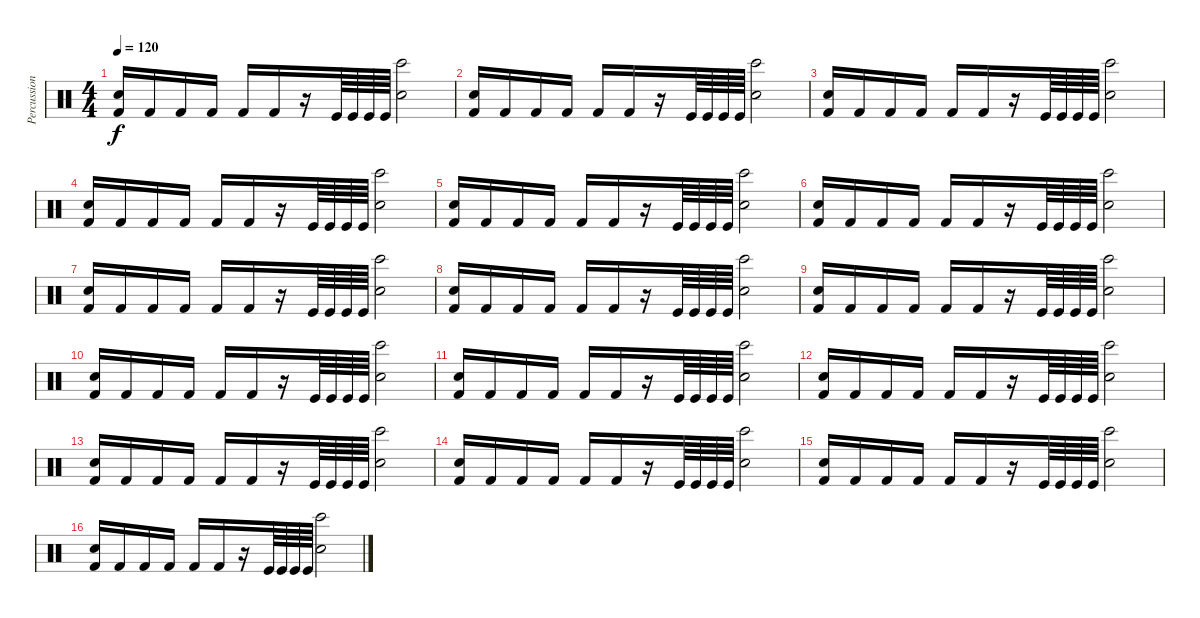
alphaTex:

\track ("Percussion" "Percussion") {instrument percussion}
\staff {score}
\articulation defaults
\ts (4 4)
\tempo 120
\clef neutral
\ks c
("Kick (hit) 2" "Snare (hit) 2").16{dy f} "Kick (hit) 2".16 "Kick (hit) 2".16 "Kick (hit) 2".16 "Kick (hit) 2".16 "Kick (hit) 2".16 r.16 "Kick (hit)".64 "Kick (hit)".64 "Kick (hit)".64 "Kick (hit)".64 ("Bongo High (hit)" "Snare (hit) 2").2 |
("Kick (hit) 2" "Snare (hit) 2").16 "Kick (hit) 2".16 "Kick (hit) 2".16 "Kick (hit) 2".16 "Kick (hit) 2".16 "Kick (hit) 2".16 r.16 "Kick (hit)".64 "Kick (hit)".64 "Kick (hit)".64 "Kick (hit)".64 ("Bongo High (hit)" "Snare (hit) 2").2 |
("Kick (hit) 2" "Snare (hit) 2").16 "Kick (hit) 2".16 "Kick (hit) 2".16 "Kick (hit) 2".16 "Kick (hit) 2".16 "Kick (hit) 2".16 r.16 "Kick (hit)".64 "Kick (hit)".64 "Kick (hit)".64 "Kick (hit)".64 ("Bongo High (hit)" "Snare (hit) 2").2 |
("Kick (hit) 2" "Snare (hit) 2").16 "Kick (hit) 2".16 "Kick (hit) 2".16 "Kick (hit) 2".16 "Kick (hit) 2".16 "Kick (hit) 2".16 r.16 "Kick (hit)".64 "Kick (hit)".64 "Kick (hit)".64 "Kick (hit)".64 ("Bongo High (hit)" "Snare (hit) 2").2 |
("Kick (hit) 2" "Snare (hit) 2").16 "Kick (hit) 2".16 "Kick (hit) 2".16 "Kick (hit) 2".16 "Kick (hit) 2".16 "Kick (hit) 2".16 r.16 "Kick (hit)".64 "Kick (hit)".64 "Kick (hit)".64 "Kick (hit)".64 ("Bongo High (hit)" "Snare (hit) 2").2 |
("Kick (hit) 2" "Snare (hit) 2").16 "Kick (hit) 2".16 "Kick (hit) 2".16 "Kick (hit) 2".16 "Kick (hit) 2".16 "Kick (hit) 2".16 r.16 "Kick (hit)".64 "Kick (hit)".64 "Kick (hit)".64 "Kick (hit)".64 ("Bongo High (hit)" "Snare (hit) 2").2 |
("Kick (hit) 2" "Snare (hit) 2").16 "Kick (hit) 2".16 "Kick (hit) 2".16 "Kick (hit) 2".16 "Kick (hit) 2".16 "Kick (hit) 2".16 r.16 "Kick (hit)".64 "Kick (hit)".64 "Kick (hit)".64 "Kick (hit)".64 ("Bongo High (hit)" "Snare (hit) 2").2 |
("Kick (hit) 2" "Snare (hit) 2").16 "Kick (hit) 2".16 "Kick (hit) 2".16 "Kick (hit) 2".16 "Kick (hit) 2".16 "Kick (hit) 2".16 r.16 "Kick (hit)".64 "Kick (hit)".64 "Kick (hit)".64 "Kick (hit)".64 ("Bongo High (hit)" "Snare (hit) 2").2 |
("Kick (hit) 2" "Snare (hit) 2").16 "Kick (hit) 2".16 "Kick (hit) 2".16 "Kick (hit) 2".16 "Kick (hit) 2".16 "Kick (hit) 2".16 r.16 "Kick (hit)".64 "Kick (hit)".64 "Kick (hit)".64 "Kick (hit)".64 ("Bongo High (hit)" "Snare (hit) 2").2 |
("Kick (hit) 2" "Snare (hit) 2").16 "Kick (hit) 2".16 "Kick (hit) 2".16 "Kick (hit) 2".16 "Kick (hit) 2".16 "Kick (hit) 2".16 r.16 "Kick (hit)".64 "Kick (hit)".64 "Kick (hit)".64 "Kick (hit)".64 ("Bongo High (hit)" "Snare (hit) 2").2 |
("Kick (hit) 2" "Snare (hit) 2").16 "Kick (hit) 2".16 "Kick (hit) 2".16 "Kick (hit) 2".16 "Kick (hit) 2".16 "Kick (hit) 2".16 r.16 "Kick (hit)".64 "Kick (hit)".64 "Kick (hit)".64 "Kick (hit)".64 ("Bongo High (hit)" "Snare (hit) 2").2 |
("Kick (hit) 2" "Snare (hit) 2").16 "Kick (hit) 2".16 "Kick (hit) 2".16 "Kick (hit) 2".16 "Kick (hit) 2".16 "Kick (hit) 2".16 r.16 "Kick (hit)".64 "Kick (hit)".64 "Kick (hit)".64 "Kick (hit)".64 ("Bongo High (hit)" "Snare (hit) 2").2 |
("Kick (hit) 2" "Snare (hit) 2").16 "Kick (hit) 2".16 "Kick (hit) 2".16 "Kick (hit) 2".16 "Kick (hit) 2".16 "Kick (hit) 2".16 r.16 "Kick (hit)".64 "Kick (hit)".64 "Kick (hit)".64 "Kick (hit)".64 ("Bongo High (hit)" "Snare (hit) 2").2 |
("Kick (hit) 2" "Snare (hit) 2").16 "Kick (hit) 2".16 "Kick (hit) 2".16 "Kick (hit) 2".16 "Kick (hit) 2".16 "Kick (hit) 2".16 r.16 "Kick (hit)".64 "Kick (hit)".64 "Kick (hit)".64 "Kick (hit)".64 ("Bongo High (hit)" "Snare (hit) 2").2 |
("Kick (hit) 2" "Snare (hit) 2").16 "Kick (hit) 2".16 "Kick (hit) 2".16 "Kick (hit) 2".16 "Kick (hit) 2".16 "Kick (hit) 2".16 r.16 "Kick (hit)".64 "Kick (hit)".64 "Kick (hit)".64 "Kick (hit)".64 ("Bongo High (hit)" "Snare (hit) 2").2 |
("Kick (hit) 2" "Snare (hit) 2").16 "Kick (hit) 2".16 "Kick (hit) 2".16 "Kick (hit) 2".16 "Kick (hit) 2".16 "Kick (hit) 2".16 r.16 "Kick (hit)".64 "Kick (hit)".64 "Kick (hit)".64 "Kick (hit)".64 ("Bongo High (hit)" "Snare (hit) 2").2
